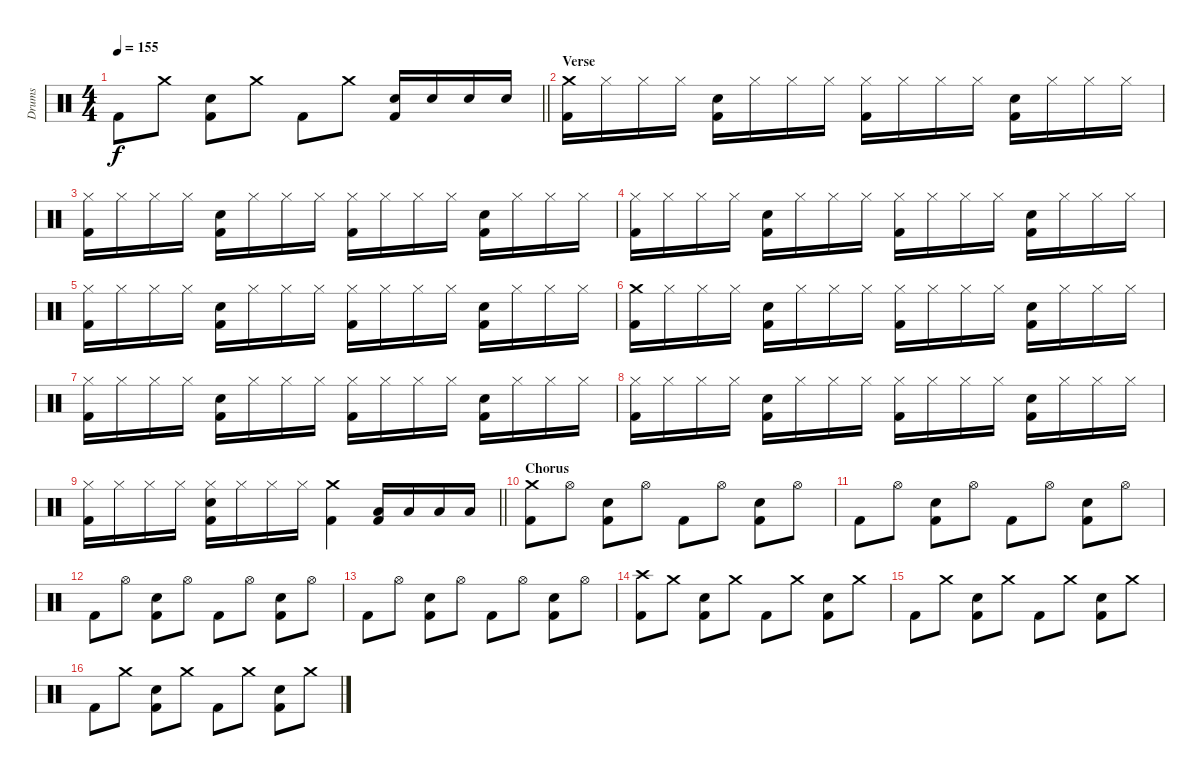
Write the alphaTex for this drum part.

\track ("Drums" "Drums") {instrument percussion}
\staff {score}
\articulation defaults
\ts (4 4)
\tempo 155
\clef neutral
\barLineRight lightlight
\ks c "Kick (hit) 2".8{dy f} "Crash medium (hit)".8
("Electric Snare (hit)" "Kick (hit) 2").8 "Crash medium (hit)".8 "Kick (hit) 2".8 "Crash medium (hit)".8 ("Electric Snare (hit)" "Kick (hit) 2").16 "Electric Snare (hit)".16 "Electric Snare (hit)".16 "Electric Snare (hit)".16 |
\section ("" "Verse")
("Crash medium (hit)" "Kick (hit) 2").16 "Hi-Hat (closed)".16 "Hi-Hat (closed)".16 "Hi-Hat (closed)".16 ("Electric Snare (hit)" "Kick (hit) 2").16 "Hi-Hat (closed)".16 "Hi-Hat (closed)".16 "Hi-Hat (closed)".16 ("Hi-Hat (closed)" "Kick (hit) 2").16 "Hi-Hat (closed)".16 "Hi-Hat (closed)".16 "Hi-Hat (closed)".16 ("Electric Snare (hit)" "Kick (hit) 2").16 "Hi-Hat (closed)".16 "Hi-Hat (closed)".16 "Hi-Hat (closed)".16 |
("Hi-Hat (closed)" "Kick (hit) 2").16 "Hi-Hat (closed)".16 "Hi-Hat (closed)".16 "Hi-Hat (closed)".16 ("Electric Snare (hit)" "Kick (hit) 2").16 "Hi-Hat (closed)".16 "Hi-Hat (closed)".16 "Hi-Hat (closed)".16 ("Hi-Hat (closed)" "Kick (hit) 2").16 "Hi-Hat (closed)".16 "Hi-Hat (closed)".16 "Hi-Hat (closed)".16 ("Electric Snare (hit)" "Kick (hit) 2").16 "Hi-Hat (closed)".16 "Hi-Hat (closed)".16 "Hi-Hat (closed)".16 |
("Hi-Hat (closed)" "Kick (hit) 2").16 "Hi-Hat (closed)".16 "Hi-Hat (closed)".16 "Hi-Hat (closed)".16 ("Electric Snare (hit)" "Kick (hit) 2").16 "Hi-Hat (closed)".16 "Hi-Hat (closed)".16 "Hi-Hat (closed)".16 ("Hi-Hat (closed)" "Kick (hit) 2").16 "Hi-Hat (closed)".16 "Hi-Hat (closed)".16 "Hi-Hat (closed)".16 ("Electric Snare (hit)" "Kick (hit) 2").16 "Hi-Hat (closed)".16 "Hi-Hat (closed)".16 "Hi-Hat (closed)".16 |
("Hi-Hat (closed)" "Kick (hit) 2").16 "Hi-Hat (closed)".16 "Hi-Hat (closed)".16 "Hi-Hat (closed)".16 ("Electric Snare (hit)" "Kick (hit) 2").16 "Hi-Hat (closed)".16 "Hi-Hat (closed)".16 "Hi-Hat (closed)".16 ("Hi-Hat (closed)" "Kick (hit) 2").16 "Hi-Hat (closed)".16 "Hi-Hat (closed)".16 "Hi-Hat (closed)".16 ("Electric Snare (hit)" "Kick (hit) 2").16 "Hi-Hat (closed)".16 "Hi-Hat (closed)".16 "Hi-Hat (closed)".16 |
("Crash medium (hit)" "Kick (hit) 2").16 "Hi-Hat (closed)".16 "Hi-Hat (closed)".16 "Hi-Hat (closed)".16 ("Electric Snare (hit)" "Kick (hit) 2").16 "Hi-Hat (closed)".16 "Hi-Hat (closed)".16 "Hi-Hat (closed)".16 ("Hi-Hat (closed)" "Kick (hit) 2").16 "Hi-Hat (closed)".16 "Hi-Hat (closed)".16 "Hi-Hat (closed)".16 ("Electric Snare (hit)" "Kick (hit) 2").16 "Hi-Hat (closed)".16 "Hi-Hat (closed)".16 "Hi-Hat (closed)".16 |
("Hi-Hat (closed)" "Kick (hit) 2").16 "Hi-Hat (closed)".16 "Hi-Hat (closed)".16 "Hi-Hat (closed)".16 ("Electric Snare (hit)" "Kick (hit) 2").16 "Hi-Hat (closed)".16 "Hi-Hat (closed)".16 "Hi-Hat (closed)".16 ("Hi-Hat (closed)" "Kick (hit) 2").16 "Hi-Hat (closed)".16 "Hi-Hat (closed)".16 "Hi-Hat (closed)".16 ("Electric Snare (hit)" "Kick (hit) 2").16 "Hi-Hat (closed)".16 "Hi-Hat (closed)".16 "Hi-Hat (closed)".16 |
("Hi-Hat (closed)" "Kick (hit) 2").16 "Hi-Hat (closed)".16 "Hi-Hat (closed)".16 "Hi-Hat (closed)".16 ("Electric Snare (hit)" "Kick (hit) 2").16 "Hi-Hat (closed)".16 "Hi-Hat (closed)".16 "Hi-Hat (closed)".16 ("Hi-Hat (closed)" "Kick (hit) 2").16 "Hi-Hat (closed)".16 "Hi-Hat (closed)".16 "Hi-Hat (closed)".16 ("Electric Snare (hit)" "Kick (hit) 2").16 "Hi-Hat (closed)".16 "Hi-Hat (closed)".16 "Hi-Hat (closed)".16 |
\barLineRight lightlight
("Hi-Hat (closed)" "Kick (hit) 2").16 "Hi-Hat (closed)".16 "Hi-Hat (closed)".16 "Hi-Hat (closed)".16 ("Hi-Hat (closed)" "Electric Snare (hit)" "Kick (hit) 2").16 "Hi-Hat (closed)".16 "Hi-Hat (closed)".16 "Hi-Hat (closed)".16 ("Crash medium (hit)" "Kick (hit) 2").4 ("Low Floor Tom (hit)" "Kick (hit) 2").16 "Low Floor Tom (hit)".16 "Low Floor Tom (hit)".16 "Low Floor Tom (hit)".16 |
\section ("" "Chorus")
("Crash medium (hit)" "Kick (hit) 2").8 "Hi-Hat (open)".8 ("Electric Snare (hit)" "Kick (hit) 2").8 "Hi-Hat (open)".8 "Kick (hit) 2".8 "Hi-Hat (open)".8 ("Electric Snare (hit)" "Kick (hit) 2").8 "Hi-Hat (open)".8 |
"Kick (hit) 2".8 "Hi-Hat (open)".8 ("Electric Snare (hit)" "Kick (hit) 2").8 "Hi-Hat (open)".8 "Kick (hit) 2".8 "Hi-Hat (open)".8 ("Electric Snare (hit)" "Kick (hit) 2").8 "Hi-Hat (open)".8 |
"Kick (hit) 2".8 "Hi-Hat (open)".8 ("Electric Snare (hit)" "Kick (hit) 2").8 "Hi-Hat (open)".8 "Kick (hit) 2".8 "Hi-Hat (open)".8 ("Electric Snare (hit)" "Kick (hit) 2").8 "Hi-Hat (open)".8 |
"Kick (hit) 2".8 "Hi-Hat (open)".8 ("Electric Snare (hit)" "Kick (hit) 2").8 "Hi-Hat (open)".8 "Kick (hit) 2".8 "Hi-Hat (open)".8 ("Electric Snare (hit)" "Kick (hit) 2").8 "Hi-Hat (open)".8 |
("Crash high (hit)" "Kick (hit) 2").8 "Crash medium (hit)".8 ("Electric Snare (hit)" "Kick (hit) 2").8 "Crash medium (hit)".8 "Kick (hit) 2".8 "Crash medium (hit)".8 ("Electric Snare (hit)" "Kick (hit) 2").8 "Crash medium (hit)".8 |
"Kick (hit) 2".8 "Crash medium (hit)".8 ("Electric Snare (hit)" "Kick (hit) 2").8 "Crash medium (hit)".8 "Kick (hit) 2".8 "Crash medium (hit)".8 ("Electric Snare (hit)" "Kick (hit) 2").8 "Crash medium (hit)".8 |
"Kick (hit) 2".8 "Crash medium (hit)".8 ("Electric Snare (hit)" "Kick (hit) 2").8 "Crash medium (hit)".8 "Kick (hit) 2".8 "Crash medium (hit)".8 ("Electric Snare (hit)" "Kick (hit) 2").8 "Crash medium (hit)".8
